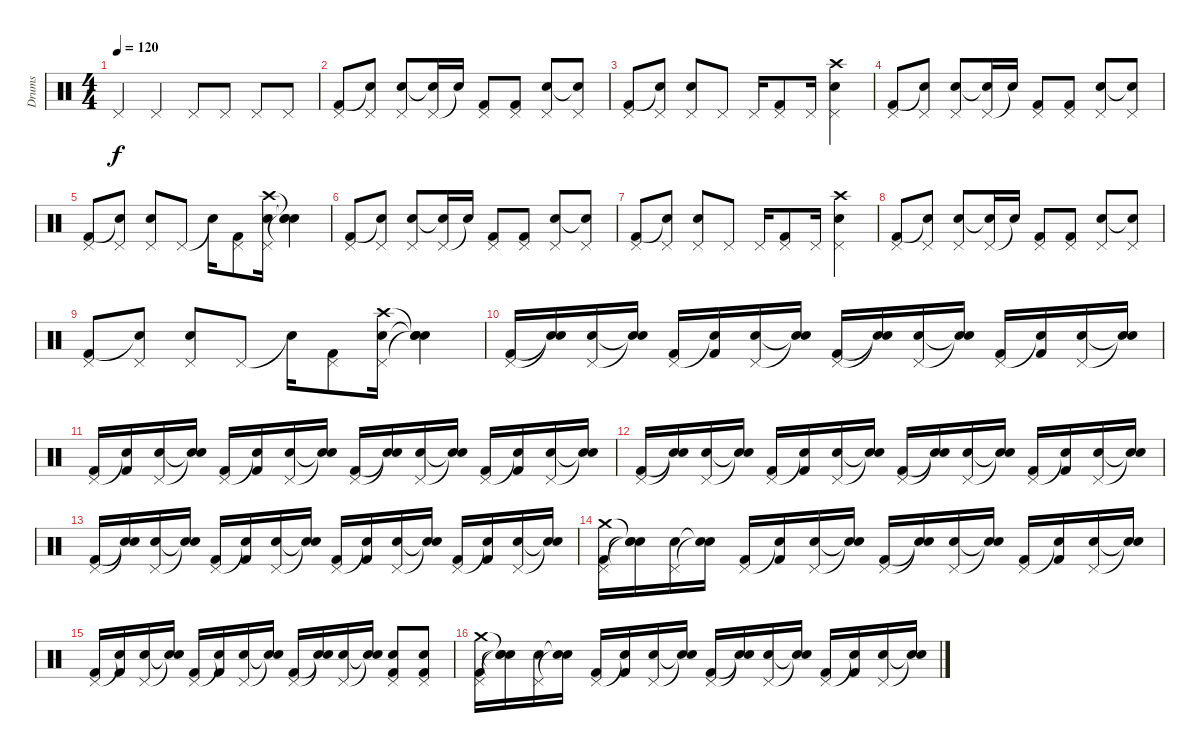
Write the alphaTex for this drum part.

\track ("Drums" "Drums") {instrument percussion}
\staff {score}
\articulation defaults
\ts (4 4)
\tempo 120
\clef neutral
\ks c "Pedal Hi-Hat (hit)".4{dy f} "Pedal Hi-Hat (hit)".4 "Pedal Hi-Hat (hit)".8 "Pedal Hi-Hat (hit)".8 "Pedal Hi-Hat (hit)".8 "Pedal Hi-Hat (hit)".8
|
("Pedal Hi-Hat (hit)" "Kick (hit) 2").8 ("Pedal Hi-Hat (hit)" "Snare (hit)"{t}).8 ("Pedal Hi-Hat (hit)" "Snare (hit) 2").8 ("Pedal Hi-Hat (hit)" "Snare (hit)"{t}).16 "Snare (hit)"{t}.16 ("Pedal Hi-Hat (hit)" "Kick (hit) 2").8 ("Pedal Hi-Hat (hit)" "Kick (hit) 2").8 ("Pedal Hi-Hat (hit)" "Snare (hit) 2").8 ("Pedal Hi-Hat (hit)" "Snare (hit)"{t}).8 |
("Pedal Hi-Hat (hit)" "Kick (hit) 2").8 ("Pedal Hi-Hat (hit)" "Snare (hit)"{t}).8 ("Pedal Hi-Hat (hit)" "Snare (hit) 2").8 "Pedal Hi-Hat (hit)".8 "Pedal Hi-Hat (hit)".16 ("Pedal Hi-Hat (hit)" "Kick (hit) 2").8 "Pedal Hi-Hat (hit)".16 ("Pedal Hi-Hat (hit)" "Crash high (hit)" "Snare (hit) 2").4 |
("Pedal Hi-Hat (hit)" "Kick (hit) 2").8 ("Pedal Hi-Hat (hit)" "Snare (hit)"{t}).8 ("Pedal Hi-Hat (hit)" "Snare (hit) 2").8 ("Pedal Hi-Hat (hit)" "Snare (hit)"{t}).16 "Snare (hit)"{t}.16 ("Pedal Hi-Hat (hit)" "Kick (hit) 2").8 ("Pedal Hi-Hat (hit)" "Kick (hit) 2").8 ("Pedal Hi-Hat (hit)" "Snare (hit) 2").8 ("Pedal Hi-Hat (hit)" "Snare (hit)"{t}).8 |
("Pedal Hi-Hat (hit)" "Kick (hit) 2").8 ("Pedal Hi-Hat (hit)" "Snare (hit)"{t}).8 ("Pedal Hi-Hat (hit)" "Snare (hit) 2").8 "Pedal Hi-Hat (hit)".8 "Snare (hit)"{t}.16 ("Pedal Hi-Hat (hit)" "Kick (hit) 2").8 ("Pedal Hi-Hat (hit)" "Crash high (hit)" "Snare (hit) 2").16 ("Snare (hit)"{t} "Snare (hit)"{t} "Snare (hit)"{t}).4 |
("Pedal Hi-Hat (hit)" "Kick (hit) 2").8 ("Pedal Hi-Hat (hit)" "Snare (hit)"{t}).8 ("Pedal Hi-Hat (hit)" "Snare (hit) 2").8 ("Pedal Hi-Hat (hit)" "Snare (hit)"{t}).16 "Snare (hit)"{t}.16 ("Pedal Hi-Hat (hit)" "Kick (hit) 2").8 ("Pedal Hi-Hat (hit)" "Kick (hit) 2").8 ("Pedal Hi-Hat (hit)" "Snare (hit) 2").8 ("Pedal Hi-Hat (hit)" "Snare (hit)"{t}).8 |
("Pedal Hi-Hat (hit)" "Kick (hit) 2").8 ("Pedal Hi-Hat (hit)" "Snare (hit)"{t}).8 ("Pedal Hi-Hat (hit)" "Snare (hit) 2").8 "Pedal Hi-Hat (hit)".8 "Pedal Hi-Hat (hit)".16 ("Pedal Hi-Hat (hit)" "Kick (hit) 2").8 "Pedal Hi-Hat (hit)".16 ("Pedal Hi-Hat (hit)" "Crash high (hit)" "Snare (hit) 2").4 |
("Pedal Hi-Hat (hit)" "Kick (hit) 2").8 ("Pedal Hi-Hat (hit)" "Snare (hit)"{t}).8 ("Pedal Hi-Hat (hit)" "Snare (hit) 2").8 ("Pedal Hi-Hat (hit)" "Snare (hit)"{t}).16 "Snare (hit)"{t}.16 ("Pedal Hi-Hat (hit)" "Kick (hit) 2").8 ("Pedal Hi-Hat (hit)" "Kick (hit) 2").8 ("Pedal Hi-Hat (hit)" "Snare (hit) 2").8 ("Pedal Hi-Hat (hit)" "Snare (hit)"{t}).8 |
("Pedal Hi-Hat (hit)" "Kick (hit) 2").8 ("Pedal Hi-Hat (hit)" "Snare (hit)"{t}).8 ("Pedal Hi-Hat (hit)" "Snare (hit) 2").8 "Pedal Hi-Hat (hit)".8 "Snare (hit)"{t}.16 ("Pedal Hi-Hat (hit)" "Kick (hit) 2").8 ("Pedal Hi-Hat (hit)" "Crash high (hit)" "Snare (hit) 2").16 ("Snare (hit)"{t} "Snare (hit)"{t} "Snare (hit)"{t}).4 |
("Pedal Hi-Hat (hit)" "Kick (hit) 2").16 ("Snare (hit)"{t} "Snare (hit)"{t}).16 ("Pedal Hi-Hat (hit)" "Snare (hit) 2").16 ("Snare (hit)"{t} "Snare (hit)"{t}).16 ("Pedal Hi-Hat (hit)" "Kick (hit) 2").16 ("Snare (hit)"{t} "Kick (hit) 2").16 ("Pedal Hi-Hat (hit)" "Snare (hit) 2").16 ("Snare (hit)"{t} "Snare (hit)"{t}).16 ("Pedal Hi-Hat (hit)" "Kick (hit) 2").16 ("Snare (hit)"{t} "Snare (hit)"{t}).16 ("Pedal Hi-Hat (hit)" "Snare (hit) 2").16 ("Snare (hit)"{t} "Snare (hit)"{t}).16 ("Pedal Hi-Hat (hit)" "Kick (hit) 2").16 ("Snare (hit)"{t} "Kick (hit) 2").16 ("Pedal Hi-Hat (hit)" "Snare (hit) 2").16 ("Snare (hit)"{t} "Snare (hit)"{t}).16 |
("Pedal Hi-Hat (hit)" "Kick (hit) 2").16 ("Snare (hit)"{t} "Kick (hit) 2").16 ("Pedal Hi-Hat (hit)" "Snare (hit) 2").16 ("Snare (hit)"{t} "Snare (hit)"{t}).16 ("Pedal Hi-Hat (hit)" "Kick (hit) 2").16 ("Snare (hit)"{t} "Kick (hit) 2").16 ("Pedal Hi-Hat (hit)" "Snare (hit) 2").16 ("Snare (hit)"{t} "Snare (hit)"{t}).16 ("Pedal Hi-Hat (hit)" "Kick (hit) 2").16 ("Snare (hit)"{t} "Snare (hit)"{t}).16 ("Pedal Hi-Hat (hit)" "Snare (hit) 2").16 ("Snare (hit)"{t} "Snare (hit)"{t}).16 ("Pedal Hi-Hat (hit)" "Kick (hit) 2").16 ("Snare (hit)"{t} "Kick (hit) 2").16 ("Pedal Hi-Hat (hit)" "Snare (hit) 2").16 ("Snare (hit)"{t} "Snare (hit)"{t}).16 |
("Pedal Hi-Hat (hit)" "Kick (hit) 2").16 ("Snare (hit)"{t} "Snare (hit)"{t}).16 ("Pedal Hi-Hat (hit)" "Snare (hit) 2").16 ("Snare (hit)"{t} "Snare (hit)"{t}).16 ("Pedal Hi-Hat (hit)" "Kick (hit) 2").16 ("Snare (hit)"{t} "Kick (hit) 2").16 ("Pedal Hi-Hat (hit)" "Snare (hit) 2").16 ("Snare (hit)"{t} "Snare (hit)"{t}).16 ("Pedal Hi-Hat (hit)" "Kick (hit) 2").16 ("Snare (hit)"{t} "Snare (hit)"{t}).16 ("Pedal Hi-Hat (hit)" "Snare (hit) 2").16 ("Snare (hit)"{t} "Snare (hit)"{t}).16 ("Pedal Hi-Hat (hit)" "Kick (hit) 2").16 ("Snare (hit)"{t} "Kick (hit) 2").16 ("Pedal Hi-Hat (hit)" "Snare (hit) 2").16 ("Snare (hit)"{t} "Snare (hit)"{t}).16 |
("Pedal Hi-Hat (hit)" "Kick (hit) 2").16 ("Snare (hit)"{t} "Snare (hit)"{t}).16 ("Pedal Hi-Hat (hit)" "Snare (hit) 2").16 ("Snare (hit)"{t} "Snare (hit)"{t}).16 ("Pedal Hi-Hat (hit)" "Kick (hit) 2").16 ("Snare (hit)"{t} "Kick (hit) 2").16 ("Pedal Hi-Hat (hit)" "Snare (hit) 2").16 ("Snare (hit)"{t} "Snare (hit)"{t}).16 ("Pedal Hi-Hat (hit)" "Kick (hit) 2").16 ("Snare (hit)"{t} "Kick (hit) 2").16 ("Pedal Hi-Hat (hit)" "Snare (hit) 2").16 ("Snare (hit)"{t} "Snare (hit)"{t}).16 ("Pedal Hi-Hat (hit)" "Kick (hit) 2").16 ("Snare (hit)"{t} "Kick (hit) 2").16 ("Pedal Hi-Hat (hit)" "Snare (hit) 2").16 ("Snare (hit)"{t} "Snare (hit)"{t}).16 |
("Pedal Hi-Hat (hit)" "Crash medium (hit)" "Kick (hit) 2").16 ("Snare (hit)"{t} "Snare (hit)"{t} "Snare (hit)"{t}).16 ("Pedal Hi-Hat (hit)" "Snare (hit) 2").16 ("Snare (hit)"{t} "Snare (hit)"{t}).16 ("Pedal Hi-Hat (hit)" "Kick (hit) 2").16 ("Snare (hit)"{t} "Kick (hit) 2").16 ("Pedal Hi-Hat (hit)" "Snare (hit) 2").16 ("Snare (hit)"{t} "Snare (hit)"{t}).16 ("Pedal Hi-Hat (hit)" "Kick (hit) 2").16 ("Snare (hit)"{t} "Snare (hit)"{t}).16 ("Pedal Hi-Hat (hit)" "Snare (hit) 2").16 ("Snare (hit)"{t} "Snare (hit)"{t}).16 ("Pedal Hi-Hat (hit)" "Kick (hit) 2").16 ("Snare (hit)"{t} "Kick (hit) 2").16 ("Pedal Hi-Hat (hit)" "Snare (hit) 2").16 ("Snare (hit)"{t} "Snare (hit)"{t}).16 |
("Pedal Hi-Hat (hit)" "Kick (hit) 2").16 ("Snare (hit)"{t} "Kick (hit) 2").16 ("Pedal Hi-Hat (hit)" "Snare (hit) 2").16 ("Snare (hit)"{t} "Snare (hit)"{t}).16 ("Pedal Hi-Hat (hit)" "Kick (hit) 2").16 ("Snare (hit)"{t} "Kick (hit) 2").16 ("Pedal Hi-Hat (hit)" "Snare (hit) 2").16 ("Snare (hit)"{t} "Snare (hit)"{t}).16 ("Pedal Hi-Hat (hit)" "Kick (hit) 2").16 ("Snare (hit)"{t} "Snare (hit)"{t}).16 ("Pedal Hi-Hat (hit)" "Snare (hit) 2").16 ("Snare (hit)"{t} "Snare (hit)"{t}).16 ("Pedal Hi-Hat (hit)" "Snare (hit) 2" "Kick (hit) 2").8 ("Pedal Hi-Hat (hit)" "Snare (hit) 2" "Kick (hit) 2").8 |
("Pedal Hi-Hat (hit)" "Crash medium (hit)" "Kick (hit) 2").16 ("Snare (hit)"{t} "Snare (hit)"{t} "Snare (hit)"{t}).16 ("Pedal Hi-Hat (hit)" "Snare (hit) 2").16 ("Snare (hit)"{t} "Snare (hit)"{t}).16 ("Pedal Hi-Hat (hit)" "Kick (hit) 2").16 ("Snare (hit)"{t} "Kick (hit) 2").16 ("Pedal Hi-Hat (hit)" "Snare (hit) 2").16 ("Snare (hit)"{t} "Snare (hit)"{t}).16 ("Pedal Hi-Hat (hit)" "Kick (hit) 2").16 ("Snare (hit)"{t} "Snare (hit)"{t}).16 ("Pedal Hi-Hat (hit)" "Snare (hit) 2").16 ("Snare (hit)"{t} "Snare (hit)"{t}).16 ("Pedal Hi-Hat (hit)" "Kick (hit) 2").16 ("Snare (hit)"{t} "Kick (hit) 2").16 ("Pedal Hi-Hat (hit)" "Snare (hit) 2").16 ("Snare (hit)"{t} "Snare (hit)"{t}).16
